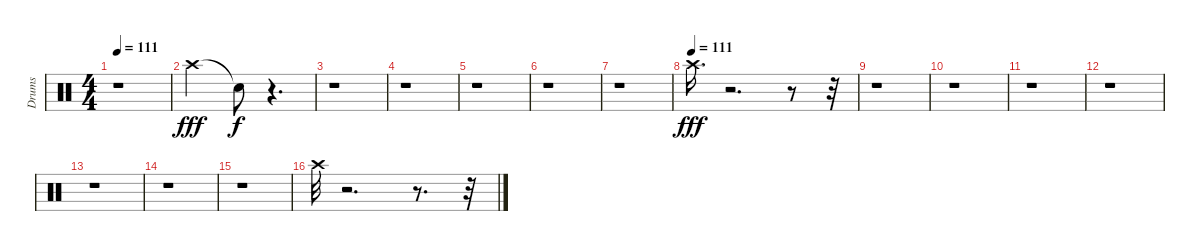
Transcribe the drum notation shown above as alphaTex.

\track ("Drums" "Drums") {instrument percussion}
\staff {score}
\articulation defaults
\ts (4 4)
\tempo 111
\clef neutral
\ks c
r.1{dy f} |
"Crash high (hit)".2{dy fff} "Snare (hit)"{t}.8{dy f} r.4{d} |
r.1 |
r.1 |
r.1 |
r.1 |
r.1 |
\tempo (111)
"Crash high (hit)".16{d dy fff} r.2{d} r.8 r.32 |
r.1 |
r.1 |
r.1 |
r.1 |
r.1 |
r.1 |
r.1 |
"Crash high (hit)".32 r.2{d} r.8{d} r.32
